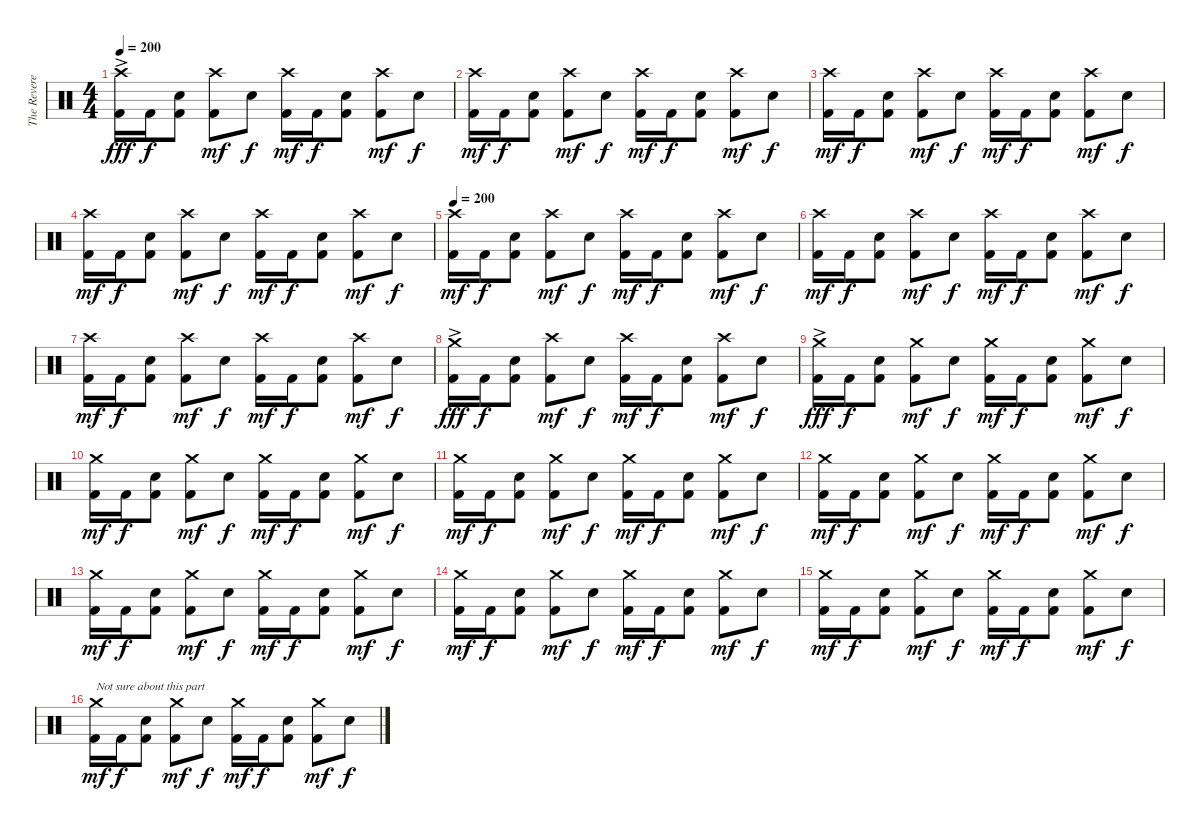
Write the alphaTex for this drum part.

\track ("The Reverend" "The Revere") {instrument percussion}
\staff {score}
\articulation defaults
\ts (4 4)
\tempo 200
\clef neutral
\ks c
("Crash high (hit)"{ac} "Kick (hit) 2").16{dy fff} "Kick (hit) 2".16{dy f} ("Electric Snare (hit)" "Kick (hit) 2").8 ("Crash high (hit)" "Kick (hit) 2").8{dy mf} "Electric Snare (hit)".8{dy f} ("Crash high (hit)" "Kick (hit) 2").16{dy mf} "Kick (hit) 2".16{dy f} ("Electric Snare (hit)" "Kick (hit) 2").8 ("Crash high (hit)" "Kick (hit) 2").8{dy mf} "Electric Snare (hit)".8{dy f} |
("Crash high (hit)" "Kick (hit) 2").16{dy mf} "Kick (hit) 2".16{dy f} ("Electric Snare (hit)" "Kick (hit) 2").8 ("Crash high (hit)" "Kick (hit) 2").8{dy mf} "Electric Snare (hit)".8{dy f} ("Crash high (hit)" "Kick (hit) 2").16{dy mf} "Kick (hit) 2".16{dy f} ("Electric Snare (hit)" "Kick (hit) 2").8 ("Crash high (hit)" "Kick (hit) 2").8{dy mf} "Electric Snare (hit)".8{dy f} |
("Crash high (hit)" "Kick (hit) 2").16{dy mf} "Kick (hit) 2".16{dy f} ("Electric Snare (hit)" "Kick (hit) 2").8 ("Crash high (hit)" "Kick (hit) 2").8{dy mf} "Electric Snare (hit)".8{dy f} ("Crash high (hit)" "Kick (hit) 2").16{dy mf} "Kick (hit) 2".16{dy f} ("Electric Snare (hit)" "Kick (hit) 2").8 ("Crash high (hit)" "Kick (hit) 2").8{dy mf} "Electric Snare (hit)".8{dy f} |
("Crash high (hit)" "Kick (hit) 2").16{dy mf} "Kick (hit) 2".16{dy f} ("Electric Snare (hit)" "Kick (hit) 2").8 ("Crash high (hit)" "Kick (hit) 2").8{dy mf} "Electric Snare (hit)".8{dy f} ("Crash high (hit)" "Kick (hit) 2").16{dy mf} "Kick (hit) 2".16{dy f} ("Electric Snare (hit)" "Kick (hit) 2").8 ("Crash high (hit)" "Kick (hit) 2").8{dy mf} "Electric Snare (hit)".8{dy f} |
\tempo 200
("Crash high (hit)" "Kick (hit) 2").16{dy mf} "Kick (hit) 2".16{dy f} ("Electric Snare (hit)" "Kick (hit) 2").8 ("Crash high (hit)" "Kick (hit) 2").8{dy mf} "Electric Snare (hit)".8{dy f} ("Crash high (hit)" "Kick (hit) 2").16{dy mf} "Kick (hit) 2".16{dy f} ("Electric Snare (hit)" "Kick (hit) 2").8 ("Crash high (hit)" "Kick (hit) 2").8{dy mf} "Electric Snare (hit)".8{dy f} |
("Crash high (hit)" "Kick (hit) 2").16{dy mf} "Kick (hit) 2".16{dy f} ("Electric Snare (hit)" "Kick (hit) 2").8 ("Crash high (hit)" "Kick (hit) 2").8{dy mf} "Electric Snare (hit)".8{dy f} ("Crash high (hit)" "Kick (hit) 2").16{dy mf} "Kick (hit) 2".16{dy f} ("Electric Snare (hit)" "Kick (hit) 2").8 ("Crash high (hit)" "Kick (hit) 2").8{dy mf} "Electric Snare (hit)".8{dy f} |
("Crash high (hit)" "Kick (hit) 2").16{dy mf} "Kick (hit) 2".16{dy f} ("Electric Snare (hit)" "Kick (hit) 2").8 ("Crash high (hit)" "Kick (hit) 2").8{dy mf} "Electric Snare (hit)".8{dy f} ("Crash high (hit)" "Kick (hit) 2").16{dy mf} "Kick (hit) 2".16{dy f} ("Electric Snare (hit)" "Kick (hit) 2").8 ("Crash high (hit)" "Kick (hit) 2").8{dy mf} "Electric Snare (hit)".8{dy f} |
("Crash medium (hit)"{ac} "Kick (hit) 2").16{dy fff} "Kick (hit) 2".16{dy f} ("Electric Snare (hit)" "Kick (hit) 2").8 ("Crash high (hit)" "Kick (hit) 2").8{dy mf} "Electric Snare (hit)".8{dy f} ("Crash high (hit)" "Kick (hit) 2").16{dy mf} "Kick (hit) 2".16{dy f} ("Electric Snare (hit)" "Kick (hit) 2").8 ("Crash high (hit)" "Kick (hit) 2").8{dy mf} "Electric Snare (hit)".8{dy f} |
("Crash medium (hit)"{ac} "Kick (hit) 2").16{dy fff} "Kick (hit) 2".16{dy f} ("Electric Snare (hit)" "Kick (hit) 2").8 ("Crash medium (hit)" "Kick (hit) 2").8{dy mf} "Electric Snare (hit)".8{dy f} ("Crash medium (hit)" "Kick (hit) 2").16{dy mf} "Kick (hit) 2".16{dy f} ("Electric Snare (hit)" "Kick (hit) 2").8 ("Crash medium (hit)" "Kick (hit) 2").8{dy mf} "Electric Snare (hit)".8{dy f} |
("Crash medium (hit)" "Kick (hit) 2").16{dy mf} "Kick (hit) 2".16{dy f} ("Electric Snare (hit)" "Kick (hit) 2").8 ("Crash medium (hit)" "Kick (hit) 2").8{dy mf} "Electric Snare (hit)".8{dy f} ("Crash medium (hit)" "Kick (hit) 2").16{dy mf} "Kick (hit) 2".16{dy f} ("Electric Snare (hit)" "Kick (hit) 2").8 ("Crash medium (hit)" "Kick (hit) 2").8{dy mf} "Electric Snare (hit)".8{dy f} |
("Crash medium (hit)" "Kick (hit) 2").16{dy mf} "Kick (hit) 2".16{dy f} ("Electric Snare (hit)" "Kick (hit) 2").8 ("Crash medium (hit)" "Kick (hit) 2").8{dy mf} "Electric Snare (hit)".8{dy f} ("Crash medium (hit)" "Kick (hit) 2").16{dy mf} "Kick (hit) 2".16{dy f} ("Electric Snare (hit)" "Kick (hit) 2").8 ("Crash medium (hit)" "Kick (hit) 2").8{dy mf} "Electric Snare (hit)".8{dy f} |
("Crash medium (hit)" "Kick (hit) 2").16{dy mf} "Kick (hit) 2".16{dy f} ("Electric Snare (hit)" "Kick (hit) 2").8 ("Crash medium (hit)" "Kick (hit) 2").8{dy mf} "Electric Snare (hit)".8{dy f} ("Crash medium (hit)" "Kick (hit) 2").16{dy mf} "Kick (hit) 2".16{dy f} ("Electric Snare (hit)" "Kick (hit) 2").8 ("Crash medium (hit)" "Kick (hit) 2").8{dy mf} "Electric Snare (hit)".8{dy f} |
("Crash medium (hit)" "Kick (hit) 2").16{dy mf} "Kick (hit) 2".16{dy f} ("Electric Snare (hit)" "Kick (hit) 2").8 ("Crash medium (hit)" "Kick (hit) 2").8{dy mf} "Electric Snare (hit)".8{dy f} ("Crash medium (hit)" "Kick (hit) 2").16{dy mf} "Kick (hit) 2".16{dy f} ("Electric Snare (hit)" "Kick (hit) 2").8 ("Crash medium (hit)" "Kick (hit) 2").8{dy mf} "Electric Snare (hit)".8{dy f} |
("Crash medium (hit)" "Kick (hit) 2").16{dy mf} "Kick (hit) 2".16{dy f} ("Electric Snare (hit)" "Kick (hit) 2").8 ("Crash medium (hit)" "Kick (hit) 2").8{dy mf} "Electric Snare (hit)".8{dy f} ("Crash medium (hit)" "Kick (hit) 2").16{dy mf} "Kick (hit) 2".16{dy f} ("Electric Snare (hit)" "Kick (hit) 2").8 ("Crash medium (hit)" "Kick (hit) 2").8{dy mf} "Electric Snare (hit)".8{dy f} |
("Crash medium (hit)" "Kick (hit) 2").16{dy mf} "Kick (hit) 2".16{dy f} ("Electric Snare (hit)" "Kick (hit) 2").8 ("Crash medium (hit)" "Kick (hit) 2").8{dy mf} "Electric Snare (hit)".8{dy f} ("Crash medium (hit)" "Kick (hit) 2").16{dy mf} "Kick (hit) 2".16{dy f} ("Electric Snare (hit)" "Kick (hit) 2").8 ("Crash medium (hit)" "Kick (hit) 2").8{dy mf} "Electric Snare (hit)".8{dy f} |
("Crash medium (hit)" "Kick (hit) 2").16{txt "Not sure about this part" dy mf} "Kick (hit) 2".16{dy f} ("Electric Snare (hit)" "Kick (hit) 2").8 ("Crash medium (hit)" "Kick (hit) 2").8{dy mf} "Electric Snare (hit)".8{dy f} ("Crash medium (hit)" "Kick (hit) 2").16{dy mf} "Kick (hit) 2".16{dy f} ("Electric Snare (hit)" "Kick (hit) 2").8 ("Crash medium (hit)" "Kick (hit) 2").8{dy mf} "Electric Snare (hit)".8{dy f}
